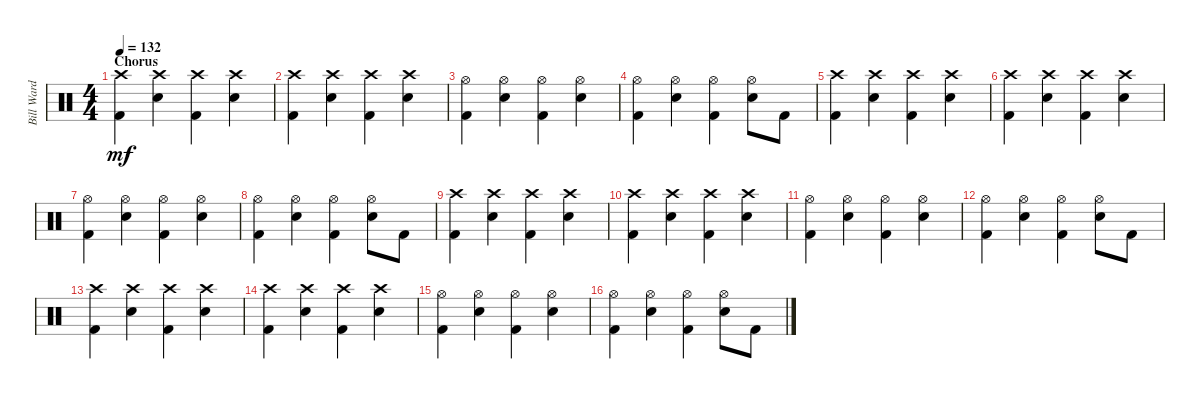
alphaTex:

\track ("Bill Ward" "Bill Ward") {instrument percussion}
\staff {score}
\articulation defaults
\ts (4 4)
\section ("" "Chorus")
\tempo 132
\clef neutral
\ks c
("Crash high (hit)" "Kick (hit) 2").4{dy mf} ("Crash high (hit)" "Snare (hit) 2").4 ("Crash high (hit)" "Kick (hit) 2").4 ("Crash high (hit)" "Snare (hit) 2").4 |
("Crash high (hit)" "Kick (hit) 2").4 ("Crash high (hit)" "Snare (hit) 2").4 ("Crash high (hit)" "Kick (hit) 2").4 ("Crash high (hit)" "Snare (hit) 2").4 |
("Hi-Hat (open)" "Kick (hit) 2").4 ("Hi-Hat (open)" "Snare (hit) 2").4 ("Hi-Hat (open)" "Kick (hit) 2").4 ("Hi-Hat (open)" "Snare (hit) 2").4 |
("Hi-Hat (open)" "Kick (hit) 2").4 ("Hi-Hat (open)" "Snare (hit) 2").4 ("Hi-Hat (open)" "Kick (hit) 2").4 ("Hi-Hat (open)" "Snare (hit) 2").8 "Kick (hit) 2".8 |
("Crash high (hit)" "Kick (hit) 2").4 ("Crash high (hit)" "Snare (hit) 2").4 ("Crash high (hit)" "Kick (hit) 2").4 ("Crash high (hit)" "Snare (hit) 2").4 |
("Crash high (hit)" "Kick (hit) 2").4 ("Crash high (hit)" "Snare (hit) 2").4 ("Crash high (hit)" "Kick (hit) 2").4 ("Crash high (hit)" "Snare (hit) 2").4 |
("Hi-Hat (open)" "Kick (hit) 2").4 ("Hi-Hat (open)" "Snare (hit) 2").4 ("Hi-Hat (open)" "Kick (hit) 2").4 ("Hi-Hat (open)" "Snare (hit) 2").4 |
("Hi-Hat (open)" "Kick (hit) 2").4 ("Hi-Hat (open)" "Snare (hit) 2").4 ("Hi-Hat (open)" "Kick (hit) 2").4 ("Hi-Hat (open)" "Snare (hit) 2").8 "Kick (hit) 2".8 |
("Crash high (hit)" "Kick (hit) 2").4 ("Crash high (hit)" "Snare (hit) 2").4 ("Crash high (hit)" "Kick (hit) 2").4 ("Crash high (hit)" "Snare (hit) 2").4 |
("Crash high (hit)" "Kick (hit) 2").4 ("Crash high (hit)" "Snare (hit) 2").4 ("Crash high (hit)" "Kick (hit) 2").4 ("Crash high (hit)" "Snare (hit) 2").4 |
("Hi-Hat (open)" "Kick (hit) 2").4 ("Hi-Hat (open)" "Snare (hit) 2").4 ("Hi-Hat (open)" "Kick (hit) 2").4 ("Hi-Hat (open)" "Snare (hit) 2").4 |
("Hi-Hat (open)" "Kick (hit) 2").4 ("Hi-Hat (open)" "Snare (hit) 2").4 ("Hi-Hat (open)" "Kick (hit) 2").4 ("Hi-Hat (open)" "Snare (hit) 2").8 "Kick (hit) 2".8 |
("Crash high (hit)" "Kick (hit) 2").4 ("Crash high (hit)" "Snare (hit) 2").4 ("Crash high (hit)" "Kick (hit) 2").4 ("Crash high (hit)" "Snare (hit) 2").4 |
("Crash high (hit)" "Kick (hit) 2").4 ("Crash high (hit)" "Snare (hit) 2").4 ("Crash high (hit)" "Kick (hit) 2").4 ("Crash high (hit)" "Snare (hit) 2").4 |
("Hi-Hat (open)" "Kick (hit) 2").4 ("Hi-Hat (open)" "Snare (hit) 2").4 ("Hi-Hat (open)" "Kick (hit) 2").4 ("Hi-Hat (open)" "Snare (hit) 2").4 |
("Hi-Hat (open)" "Kick (hit) 2").4 ("Hi-Hat (open)" "Snare (hit) 2").4 ("Hi-Hat (open)" "Kick (hit) 2").4 ("Hi-Hat (open)" "Snare (hit) 2").8 "Kick (hit) 2".8
